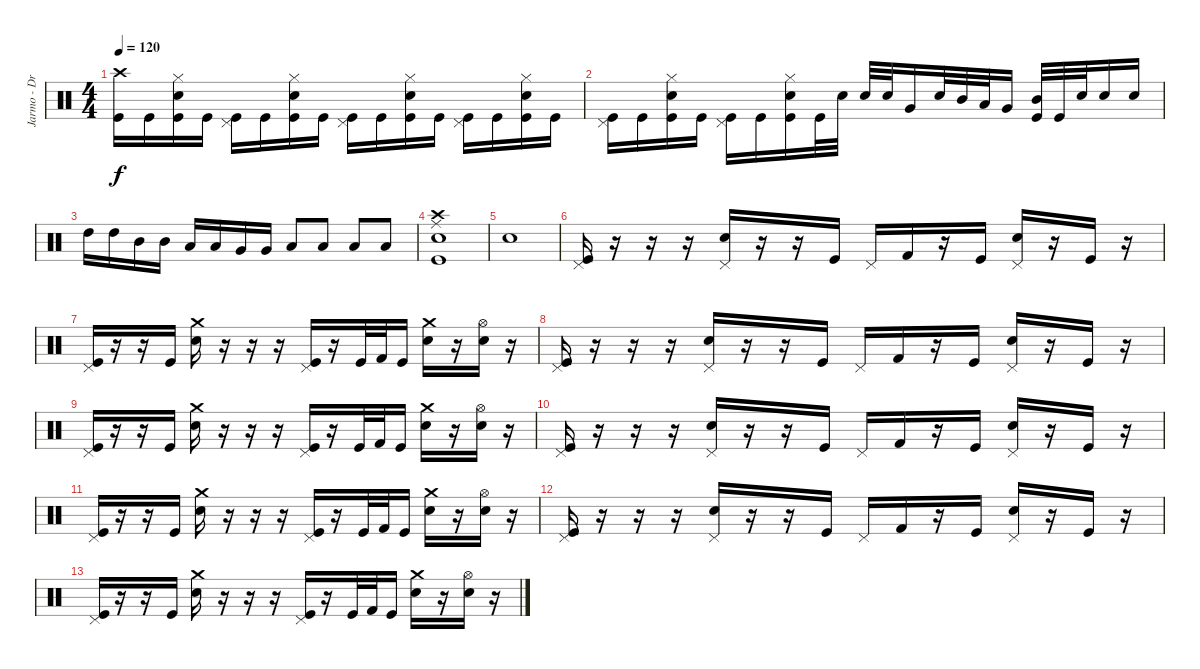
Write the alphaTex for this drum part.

\track ("Jarmo - Drums" "Jarmo - Dr") {instrument percussion}
\staff {score}
\articulation defaults
\ts (4 4)
\tempo 120
\clef neutral
\ks c
("Kick (hit)" "Crash high (hit)").16{dy f} "Kick (hit)".16 ("Kick (hit)" "Electric Snare (hit)" "Hi-Hat (closed)").16 "Kick (hit)".16 ("Kick (hit)" "Pedal Hi-Hat (hit)").16 "Kick (hit)".16 ("Kick (hit)" "Electric Snare (hit)" "Hi-Hat (closed)").16 "Kick (hit)".16 ("Kick (hit)" "Pedal Hi-Hat (hit)").16 "Kick (hit)".16 ("Kick (hit)" "Electric Snare (hit)" "Hi-Hat (closed)").16 "Kick (hit)".16 ("Kick (hit)" "Pedal Hi-Hat (hit)").16 "Kick (hit)".16 ("Kick (hit)" "Electric Snare (hit)" "Hi-Hat (closed)").16 "Kick (hit)".16 |
("Kick (hit)" "Pedal Hi-Hat (hit)").16 "Kick (hit)".16 ("Kick (hit)" "Electric Snare (hit)" "Hi-Hat (closed)").16 "Kick (hit)".16 ("Kick (hit)" "Pedal Hi-Hat (hit)").16 "Kick (hit)".16 ("Kick (hit)" "Electric Snare (hit)" "Hi-Hat (closed)").16 "Kick (hit)".32 "Electric Snare (hit)".32 "Electric Snare (hit)".32 "Electric Snare (hit)".32 "Very Low Tom (hit)".16 "Electric Snare (hit)".32 "Mid Tom (hit)".32 "Low Tom (hit)".32 "Very Low Tom (hit)".16 ("Kick (hit)" "Mid Tom (hit)").32 "Kick (hit)".32 "Electric Snare (hit)".32 "Electric Snare (hit)".16 "Electric Snare (hit)".16 |
"High Tom (hit)".16 "High Tom (hit)".16 "Mid Tom (hit)".16 "Mid Tom (hit)".16 "Low Tom (hit)".16 "Low Tom (hit)".16 "Very Low Tom (hit)".16 "Very Low Tom (hit)".16 "Low Floor Tom (hit)".8 "Low Floor Tom (hit)".8 "Low Floor Tom (hit)".8 "Low Floor Tom (hit)".8 |
("Ride (middle)" "Crash high (hit)" "Electric Snare (hit)" "Kick (hit)").1 |
"Electric Snare (hit)".1 |
("Kick (hit)" "Pedal Hi-Hat (hit)").16 r.16 r.16 r.16 ("Electric Snare (hit)" "Pedal Hi-Hat (hit)").16 r.16 r.16 "Kick (hit)".16 "Pedal Hi-Hat (hit)".16 "Kick (hit) 2".16 r.16 "Kick (hit)".16 ("Electric Snare (hit)" "Pedal Hi-Hat (hit)").16 r.16 "Kick (hit)".16 r.16 |
("Kick (hit)" "Pedal Hi-Hat (hit)").16 r.16 r.16 "Kick (hit)".16 ("Electric Snare (hit)" "Crash medium (hit)").16 r.16 r.16 r.16 ("Kick (hit)" "Pedal Hi-Hat (hit)").16 r.16 "Kick (hit)".32 "Kick (hit) 2".32 "Kick (hit)".16 ("Electric Snare (hit)" "Crash medium (hit)").16 r.16 ("Electric Snare (hit)" "Hi-Hat (open)").16 r.16 |
("Kick (hit)" "Pedal Hi-Hat (hit)").16 r.16 r.16 r.16 ("Electric Snare (hit)" "Pedal Hi-Hat (hit)").16 r.16 r.16 "Kick (hit)".16 "Pedal Hi-Hat (hit)".16 "Kick (hit) 2".16 r.16 "Kick (hit)".16 ("Electric Snare (hit)" "Pedal Hi-Hat (hit)").16 r.16 "Kick (hit)".16 r.16 |
("Kick (hit)" "Pedal Hi-Hat (hit)").16 r.16 r.16 "Kick (hit)".16 ("Electric Snare (hit)" "Crash medium (hit)").16 r.16 r.16 r.16 ("Kick (hit)" "Pedal Hi-Hat (hit)").16 r.16 "Kick (hit)".32 "Kick (hit) 2".32 "Kick (hit)".16 ("Electric Snare (hit)" "Crash medium (hit)").16 r.16 ("Electric Snare (hit)" "Hi-Hat (open)").16 r.16 |
("Kick (hit)" "Pedal Hi-Hat (hit)").16 r.16 r.16 r.16 ("Electric Snare (hit)" "Pedal Hi-Hat (hit)").16 r.16 r.16 "Kick (hit)".16 "Pedal Hi-Hat (hit)".16 "Kick (hit) 2".16 r.16 "Kick (hit)".16 ("Electric Snare (hit)" "Pedal Hi-Hat (hit)").16 r.16 "Kick (hit)".16 r.16 |
("Kick (hit)" "Pedal Hi-Hat (hit)").16 r.16 r.16 "Kick (hit)".16 ("Electric Snare (hit)" "Crash medium (hit)").16 r.16 r.16 r.16 ("Kick (hit)" "Pedal Hi-Hat (hit)").16 r.16 "Kick (hit)".32 "Kick (hit) 2".32 "Kick (hit)".16 ("Electric Snare (hit)" "Crash medium (hit)").16 r.16 ("Electric Snare (hit)" "Hi-Hat (open)").16 r.16 |
("Kick (hit)" "Pedal Hi-Hat (hit)").16 r.16 r.16 r.16 ("Electric Snare (hit)" "Pedal Hi-Hat (hit)").16 r.16 r.16 "Kick (hit)".16 "Pedal Hi-Hat (hit)".16 "Kick (hit) 2".16 r.16 "Kick (hit)".16 ("Electric Snare (hit)" "Pedal Hi-Hat (hit)").16 r.16 "Kick (hit)".16 r.16 |
("Kick (hit)" "Pedal Hi-Hat (hit)").16 r.16 r.16 "Kick (hit)".16 ("Electric Snare (hit)" "Crash medium (hit)").16 r.16 r.16 r.16 ("Kick (hit)" "Pedal Hi-Hat (hit)").16 r.16 "Kick (hit)".32 "Kick (hit) 2".32 "Kick (hit)".16 ("Electric Snare (hit)" "Crash medium (hit)").16 r.16 ("Electric Snare (hit)" "Hi-Hat (open)").16 r.16
